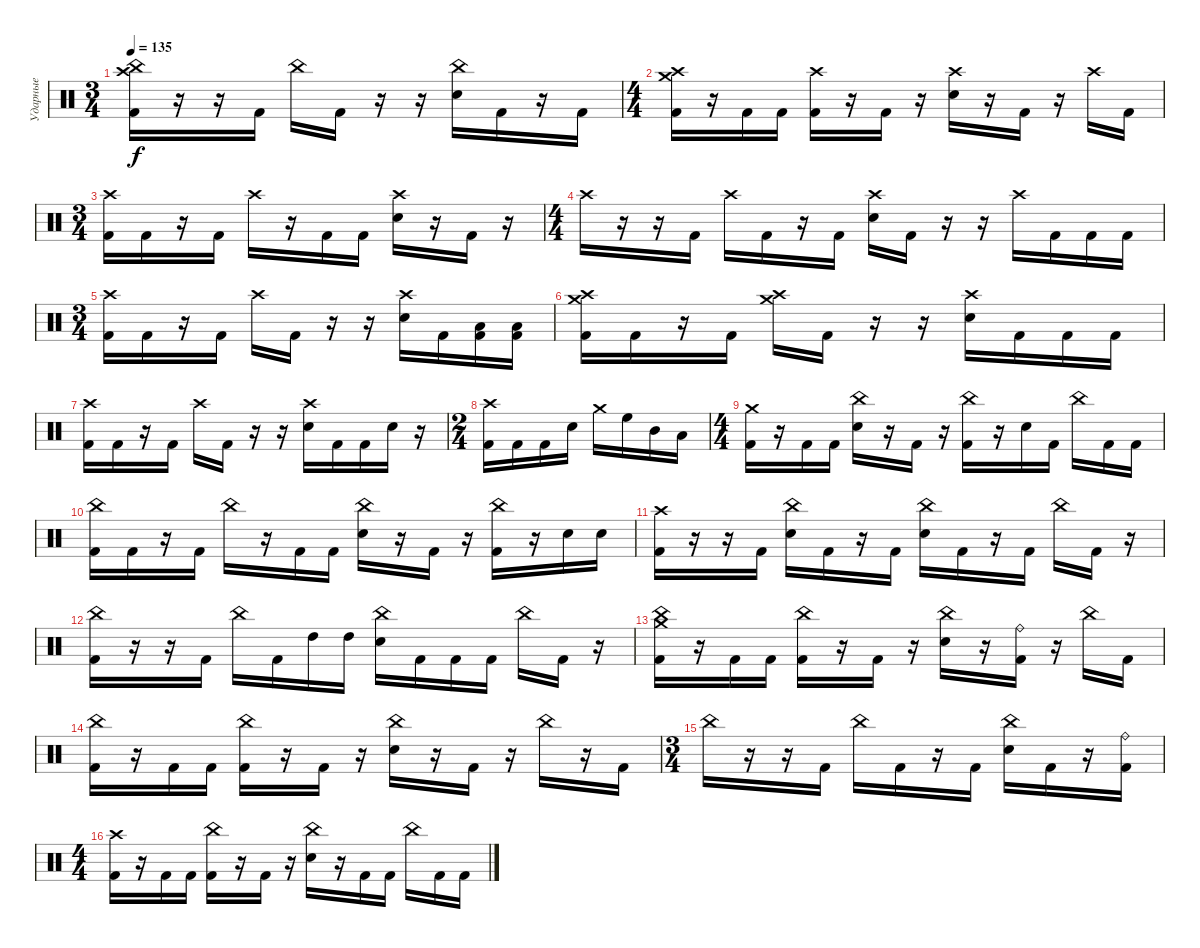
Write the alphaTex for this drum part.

\track ("Ударные" "Ударные") {instrument percussion}
\staff {score}
\articulation defaults
\ts (3 4)
\tempo 135
\clef neutral
\ks c
("China (hit)" "Crash high (hit)" "Kick (hit) 2").16{dy f} r.16 r.16 "Kick (hit) 2".16 "China (hit)".16 "Kick (hit) 2".16 r.16 r.16 ("China (hit)" "Electric Snare (hit)").16 "Kick (hit) 2".16 r.16 "Kick (hit) 2".16 |
\ts (4 4)
("Crash high (hit)" "Crash medium (hit)" "Kick (hit) 2").16 r.16 "Kick (hit) 2".16 "Kick (hit) 2".16 ("Crash high (hit)" "Kick (hit) 2").16 r.16 "Kick (hit) 2".16 r.16 ("Crash high (hit)" "Electric Snare (hit)").16 r.16 "Kick (hit) 2".16 r.16 "Crash high (hit)".16 "Kick (hit) 2".16 |
\ts (3 4)
("Crash high (hit)" "Kick (hit) 2").16 "Kick (hit) 2".16 r.16 "Kick (hit) 2".16 "Crash high (hit)".16 r.16 "Kick (hit) 2".16 "Kick (hit) 2".16 ("Crash high (hit)" "Electric Snare (hit)").16 r.16 "Kick (hit) 2".16 r.16 |
\ts (4 4)
"Crash high (hit)".16 r.16 r.16 "Kick (hit) 2".16 "Crash high (hit)".16 "Kick (hit) 2".16 r.16 "Kick (hit) 2".16 ("Crash high (hit)" "Electric Snare (hit)").16 "Kick (hit) 2".16 r.16 r.16 "Crash high (hit)".16 "Kick (hit) 2".16 "Kick (hit) 2".16 "Kick (hit) 2".16 |
\ts (3 4)
("Crash high (hit)" "Kick (hit) 2").16 "Kick (hit) 2".16 r.16 "Kick (hit) 2".16 "Crash high (hit)".16 "Kick (hit) 2".16 r.16 r.16 ("Crash high (hit)" "Electric Snare (hit)").16 "Kick (hit) 2".16 ("Low Floor Tom (hit)" "Kick (hit) 2").16 ("Low Floor Tom (hit)" "Kick (hit) 2").16 |
("Crash high (hit)" "Crash medium (hit)" "Kick (hit) 2").16 "Kick (hit) 2".16 r.16 "Kick (hit) 2".16 ("Crash high (hit)" "Crash medium (hit)").16 "Kick (hit) 2".16 r.16 r.16 ("Crash high (hit)" "Electric Snare (hit)").16 "Kick (hit) 2".16 "Kick (hit) 2".16 "Kick (hit) 2".16 |
("Crash high (hit)" "Kick (hit) 2").16 "Kick (hit) 2".16 r.16 "Kick (hit) 2".16 "Crash high (hit)".16 "Kick (hit) 2".16 r.16 r.16 ("Crash high (hit)" "Electric Snare (hit)").16 "Kick (hit) 2".16 "Kick (hit) 2".16 "Electric Snare (hit)".16 r.16 |
\ts (2 4)
("Crash high (hit)" "Kick (hit) 2").16 "Kick (hit) 2".16 "Kick (hit) 2".16 "Electric Snare (hit)".16 "Crash medium (hit)".16 "High Floor Tom (hit)".16 "Mid Tom (hit)".16 "Low Tom (hit)".16 |
\ts (4 4)
("Crash medium (hit)" "Kick (hit) 2").16 r.16 "Kick (hit) 2".16 "Kick (hit) 2".16 ("China (hit)" "Electric Snare (hit)").16 r.16 "Kick (hit) 2".16 r.16 ("China (hit)" "Kick (hit) 2").16 r.16 "Electric Snare (hit)".16 "Kick (hit) 2".16 "China (hit)".16 "Kick (hit) 2".16 "Kick (hit) 2".16 |
("China (hit)" "Kick (hit) 2").16 "Kick (hit) 2".16 r.16 "Kick (hit) 2".16 "China (hit)".16 r.16 "Kick (hit) 2".16 "Kick (hit) 2".16 ("China (hit)" "Electric Snare (hit)").16 r.16 "Kick (hit) 2".16 r.16 ("China (hit)" "Kick (hit) 2").16 r.16 "Electric Snare (hit)".16 "Electric Snare (hit)".16 |
("Crash high (hit)" "Kick (hit) 2").16 r.16 r.16 "Kick (hit) 2".16 ("China (hit)" "Electric Snare (hit)").16 "Kick (hit) 2".16 r.16 "Kick (hit) 2".16 ("China (hit)" "Electric Snare (hit)").16 "Kick (hit) 2".16 r.16 "Kick (hit) 2".16 "China (hit)".16 "Kick (hit) 2".16 r.16 |
("China (hit)" "Kick (hit) 2").16 r.16 r.16 "Kick (hit) 2".16 "China (hit)".16 "Kick (hit) 2".16 "High Tom (hit)".16 "High Tom (hit)".16 ("China (hit)" "Electric Snare (hit)").16 "Kick (hit) 2".16 "Kick (hit) 2".16 "Kick (hit) 2".16 "China (hit)".16 "Kick (hit) 2".16 r.16 |
("China (hit)" "Crash medium (hit)" "Kick (hit) 2").16 r.16 "Kick (hit) 2".16 "Kick (hit) 2".16 ("China (hit)" "Kick (hit) 2").16 r.16 "Kick (hit) 2".16 r.16 ("China (hit)" "Electric Snare (hit)").16 r.16 ("Ride (bell)" "Kick (hit) 2").16 r.16 "China (hit)".16 "Kick (hit) 2".16 |
("China (hit)" "Kick (hit) 2").16 r.16 "Kick (hit) 2".16 "Kick (hit) 2".16 ("China (hit)" "Kick (hit) 2").16 r.16 "Kick (hit) 2".16 r.16 ("China (hit)" "Electric Snare (hit)").16 r.16 "Kick (hit) 2".16 r.16 "China (hit)".16 r.16 "Kick (hit) 2".16 |
\ts (3 4)
"China (hit)".16 r.16 r.16 "Kick (hit) 2".16 "China (hit)".16 "Kick (hit) 2".16 r.16 "Kick (hit) 2".16 ("China (hit)" "Electric Snare (hit)").16 "Kick (hit) 2".16 r.16 ("Ride (bell)" "Kick (hit) 2").16 |
\ts (4 4)
("Crash high (hit)" "Kick (hit) 2").16 r.16 "Kick (hit) 2".16 "Kick (hit) 2".16 ("China (hit)" "Kick (hit) 2").16 r.16 "Kick (hit) 2".16 r.16 ("China (hit)" "Electric Snare (hit)").16 r.16 "Kick (hit) 2".16 "Kick (hit) 2".16 "China (hit)".16 "Kick (hit) 2".16 "Kick (hit) 2".16
